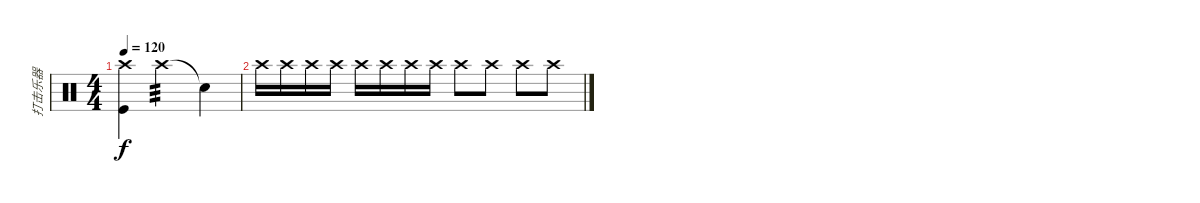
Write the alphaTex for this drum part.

\track ("打击乐器" "打击乐器") {instrument percussion}
\staff {score}
\articulation defaults
\ts (4 4)
\tempo 120
\clef neutral
\ks c
("Kick (hit)" "Crash high (hit)").4{dy f} "Crash high (hit)".2{tp 3} "Snare (hit)"{t}.4 |
"Crash high (hit)".16 "Crash high (hit)".16 "Crash high (hit)".16 "Crash high (hit)".16 "Crash high (hit)".16 "Crash high (hit)".16 "Crash high (hit)".16 "Crash high (hit)".16 "Crash high (hit)".8 "Crash high (hit)".8 "Crash high (hit)".8 "Crash high (hit)".8
